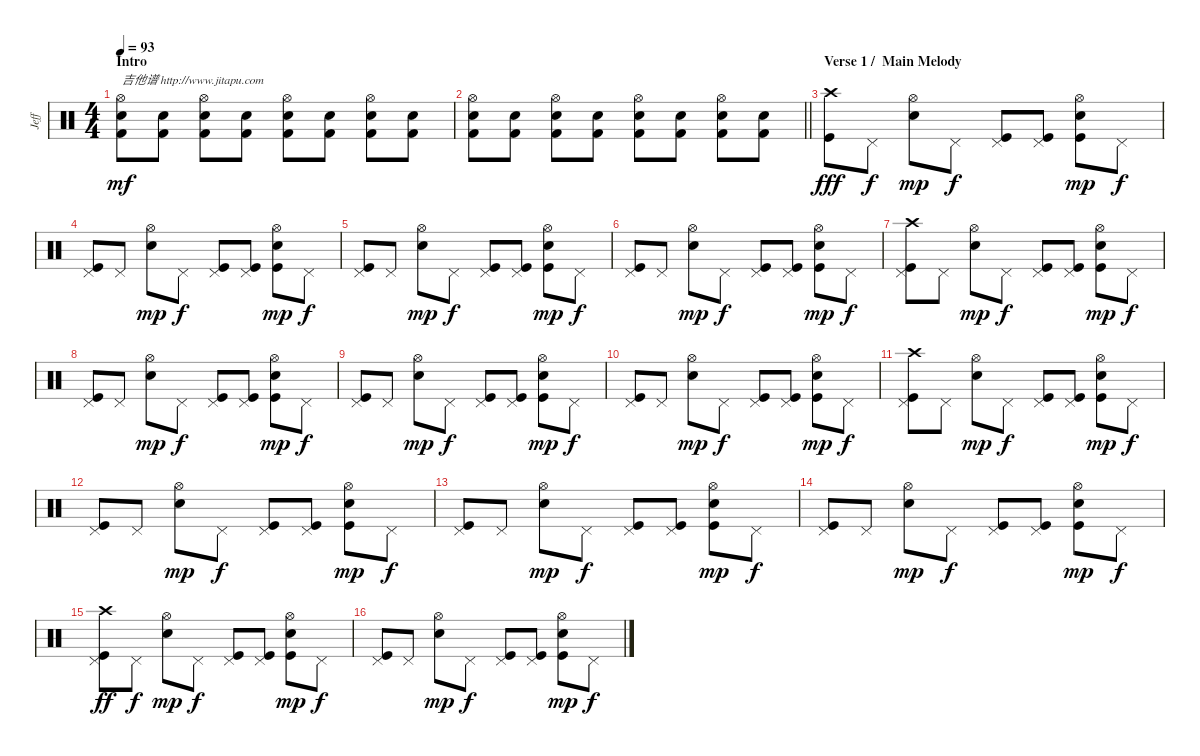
\track ("Jeff" "Jeff") {instrument percussion}
\staff {score}
\articulation defaults
\ts (4 4)
\section ("" "Intro")
\tempo 93
\clef neutral
\ks c
("Hi-Hat (open)" "Snare (hit) 2" "Kick (hit) 2").8{txt "吉他谱 http://www.jitapu.com" dy mf volume 9} ("Snare (hit) 2" "Kick (hit) 2").8 ("Hi-Hat (open)" "Snare (hit) 2" "Kick (hit) 2").8 ("Snare (hit) 2" "Kick (hit) 2").8 ("Hi-Hat (open)" "Snare (hit) 2" "Kick (hit) 2").8 ("Snare (hit) 2" "Kick (hit) 2").8{volume 11} ("Hi-Hat (open)" "Snare (hit) 2" "Kick (hit) 2").8 ("Snare (hit) 2" "Kick (hit) 2").8 |
\barLineRight lightlight
("Hi-Hat (open)" "Snare (hit) 2" "Kick (hit) 2").8{volume 14} ("Snare (hit) 2" "Kick (hit) 2").8 ("Hi-Hat (open)" "Snare (hit) 2" "Kick (hit) 2").8 ("Snare (hit) 2" "Kick (hit) 2").8 ("Hi-Hat (open)" "Snare (hit) 2" "Kick (hit) 2").8 ("Snare (hit) 2" "Kick (hit) 2").8 ("Hi-Hat (open)" "Snare (hit) 2" "Kick (hit) 2").8 ("Snare (hit) 2" "Kick (hit) 2").8 |
\section ("" "Verse 1 /  Main Melody")
("Crash high (hit)" "Kick (hit)").8{dy fff volume 16} "Pedal Hi-Hat (hit)".8{dy f} ("Hi-Hat (open)" "Snare (hit) 2").8{dy mp} "Pedal Hi-Hat (hit)".8{dy f} ("Pedal Hi-Hat (hit)" "Kick (hit)").8 ("Pedal Hi-Hat (hit)" "Kick (hit)").8 ("Hi-Hat (open)" "Snare (hit) 2" "Kick (hit)").8{dy mp} "Pedal Hi-Hat (hit)".8{dy f} |
("Pedal Hi-Hat (hit)" "Kick (hit)").8 "Pedal Hi-Hat (hit)".8 ("Hi-Hat (open)" "Snare (hit) 2").8{dy mp} "Pedal Hi-Hat (hit)".8{dy f} ("Pedal Hi-Hat (hit)" "Kick (hit)").8 ("Pedal Hi-Hat (hit)" "Kick (hit)").8 ("Hi-Hat (open)" "Snare (hit) 2" "Kick (hit)").8{dy mp} "Pedal Hi-Hat (hit)".8{dy f} |
("Pedal Hi-Hat (hit)" "Kick (hit)").8 "Pedal Hi-Hat (hit)".8 ("Hi-Hat (open)" "Snare (hit) 2").8{dy mp} "Pedal Hi-Hat (hit)".8{dy f} ("Pedal Hi-Hat (hit)" "Kick (hit)").8 ("Pedal Hi-Hat (hit)" "Kick (hit)").8 ("Hi-Hat (open)" "Snare (hit) 2" "Kick (hit)").8{dy mp} "Pedal Hi-Hat (hit)".8{dy f} |
("Pedal Hi-Hat (hit)" "Kick (hit)").8 "Pedal Hi-Hat (hit)".8 ("Hi-Hat (open)" "Snare (hit) 2").8{dy mp} "Pedal Hi-Hat (hit)".8{dy f} ("Pedal Hi-Hat (hit)" "Kick (hit)").8 ("Pedal Hi-Hat (hit)" "Kick (hit)").8 ("Hi-Hat (open)" "Snare (hit) 2" "Kick (hit)").8{dy mp} "Pedal Hi-Hat (hit)".8{dy f} |
("Pedal Hi-Hat (hit)" "Crash high (hit)" "Kick (hit)").8 "Pedal Hi-Hat (hit)".8 ("Hi-Hat (open)" "Snare (hit) 2").8{dy mp} "Pedal Hi-Hat (hit)".8{dy f} ("Pedal Hi-Hat (hit)" "Kick (hit)").8 ("Pedal Hi-Hat (hit)" "Kick (hit)").8 ("Hi-Hat (open)" "Snare (hit) 2" "Kick (hit)").8{dy mp} "Pedal Hi-Hat (hit)".8{dy f} |
("Pedal Hi-Hat (hit)" "Kick (hit)").8 "Pedal Hi-Hat (hit)".8 ("Hi-Hat (open)" "Snare (hit) 2").8{dy mp} "Pedal Hi-Hat (hit)".8{dy f} ("Pedal Hi-Hat (hit)" "Kick (hit)").8 ("Pedal Hi-Hat (hit)" "Kick (hit)").8 ("Hi-Hat (open)" "Snare (hit) 2" "Kick (hit)").8{dy mp} "Pedal Hi-Hat (hit)".8{dy f} |
("Pedal Hi-Hat (hit)" "Kick (hit)").8 "Pedal Hi-Hat (hit)".8 ("Hi-Hat (open)" "Snare (hit) 2").8{dy mp} "Pedal Hi-Hat (hit)".8{dy f} ("Pedal Hi-Hat (hit)" "Kick (hit)").8 ("Pedal Hi-Hat (hit)" "Kick (hit)").8 ("Hi-Hat (open)" "Snare (hit) 2" "Kick (hit)").8{dy mp} "Pedal Hi-Hat (hit)".8{dy f} |
("Pedal Hi-Hat (hit)" "Kick (hit)").8 "Pedal Hi-Hat (hit)".8 ("Hi-Hat (open)" "Snare (hit) 2").8{dy mp} "Pedal Hi-Hat (hit)".8{dy f} ("Pedal Hi-Hat (hit)" "Kick (hit)").8 ("Pedal Hi-Hat (hit)" "Kick (hit)").8 ("Hi-Hat (open)" "Snare (hit) 2" "Kick (hit)").8{dy mp} "Pedal Hi-Hat (hit)".8{dy f} |
("Pedal Hi-Hat (hit)" "Crash high (hit)" "Kick (hit)").8 "Pedal Hi-Hat (hit)".8 ("Hi-Hat (open)" "Snare (hit) 2").8{dy mp} "Pedal Hi-Hat (hit)".8{dy f} ("Pedal Hi-Hat (hit)" "Kick (hit)").8 ("Pedal Hi-Hat (hit)" "Kick (hit)").8 ("Hi-Hat (open)" "Snare (hit) 2" "Kick (hit)").8{dy mp} "Pedal Hi-Hat (hit)".8{dy f} |
("Pedal Hi-Hat (hit)" "Kick (hit)").8 "Pedal Hi-Hat (hit)".8 ("Hi-Hat (open)" "Snare (hit) 2").8{dy mp} "Pedal Hi-Hat (hit)".8{dy f} ("Pedal Hi-Hat (hit)" "Kick (hit)").8 ("Pedal Hi-Hat (hit)" "Kick (hit)").8 ("Hi-Hat (open)" "Snare (hit) 2" "Kick (hit)").8{dy mp} "Pedal Hi-Hat (hit)".8{dy f} |
("Pedal Hi-Hat (hit)" "Kick (hit)").8 "Pedal Hi-Hat (hit)".8 ("Hi-Hat (open)" "Snare (hit) 2").8{dy mp} "Pedal Hi-Hat (hit)".8{dy f} ("Pedal Hi-Hat (hit)" "Kick (hit)").8 ("Pedal Hi-Hat (hit)" "Kick (hit)").8 ("Hi-Hat (open)" "Snare (hit) 2" "Kick (hit)").8{dy mp} "Pedal Hi-Hat (hit)".8{dy f} |
("Pedal Hi-Hat (hit)" "Kick (hit)").8 "Pedal Hi-Hat (hit)".8 ("Hi-Hat (open)" "Snare (hit) 2").8{dy mp} "Pedal Hi-Hat (hit)".8{dy f} ("Pedal Hi-Hat (hit)" "Kick (hit)").8 ("Pedal Hi-Hat (hit)" "Kick (hit)").8 ("Hi-Hat (open)" "Snare (hit) 2" "Kick (hit)").8{dy mp} "Pedal Hi-Hat (hit)".8{dy f} |
("Pedal Hi-Hat (hit)" "Crash high (hit)" "Kick (hit)").8{dy ff} "Pedal Hi-Hat (hit)".8{dy f} ("Hi-Hat (open)" "Snare (hit) 2").8{dy mp} "Pedal Hi-Hat (hit)".8{dy f} ("Pedal Hi-Hat (hit)" "Kick (hit)").8 ("Pedal Hi-Hat (hit)" "Kick (hit)").8 ("Hi-Hat (open)" "Snare (hit) 2" "Kick (hit)").8{dy mp} "Pedal Hi-Hat (hit)".8{dy f} |
("Pedal Hi-Hat (hit)" "Kick (hit)").8 "Pedal Hi-Hat (hit)".8 ("Hi-Hat (open)" "Snare (hit) 2").8{dy mp} "Pedal Hi-Hat (hit)".8{dy f} ("Pedal Hi-Hat (hit)" "Kick (hit)").8 ("Pedal Hi-Hat (hit)" "Kick (hit)").8 ("Hi-Hat (open)" "Snare (hit) 2" "Kick (hit)").8{dy mp} "Pedal Hi-Hat (hit)".8{dy f}
